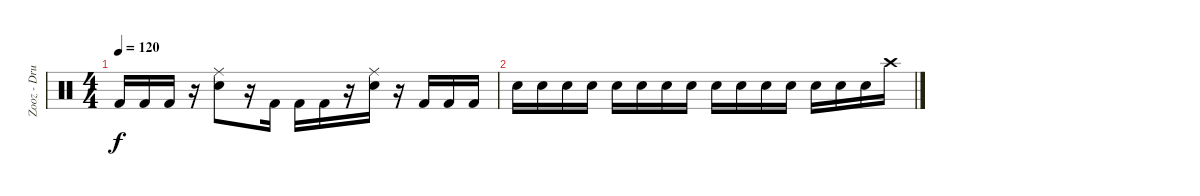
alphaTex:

\track ("Zooz - Drums" "Zooz - Dru") {instrument percussion}
\staff {score}
\articulation defaults
\ts (4 4)
\tempo 120
\clef neutral
\ks c "Kick (hit) 2".16{dy f} "Kick (hit) 2".16 "Kick (hit) 2".16
r.16 ("Ride (middle)" "Electric Snare (hit)").8 r.16 "Kick (hit) 2".16 "Kick (hit) 2".16 "Kick (hit) 2".16 r.16 ("Ride (middle)" "Electric Snare (hit)").16 r.16 "Kick (hit) 2".16 "Kick (hit) 2".16 "Kick (hit) 2".16 |
"Electric Snare (hit)".16 "Electric Snare (hit)".16 "Electric Snare (hit)".16 "Electric Snare (hit)".16 "Electric Snare (hit)".16 "Electric Snare (hit)".16 "Electric Snare (hit)".16 "Electric Snare (hit)".16 "Electric Snare (hit)".16 "Electric Snare (hit)".16 "Electric Snare (hit)".16 "Electric Snare (hit)".16 "Electric Snare (hit)".16 "Electric Snare (hit)".16 "Electric Snare (hit)".16 "Crash high (hit)".16
